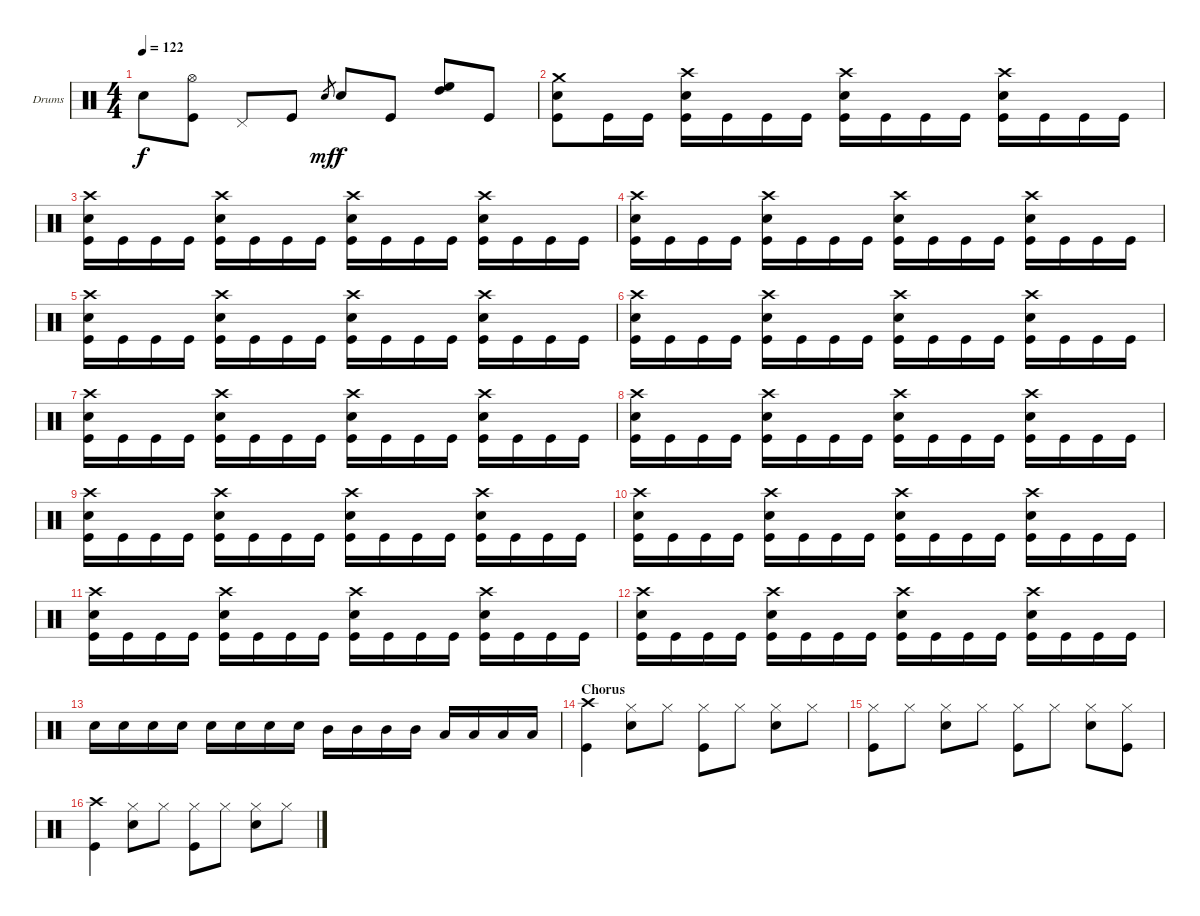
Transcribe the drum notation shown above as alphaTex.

\bracketExtendMode groupsimilarinstruments
\firstSystemTrackNameOrientation horizontal
\otherSystemsTrackNameOrientation horizontal
\track ("Drumkit" "Drums") {instrument percussion}
\staff {score}
\articulation defaults
\ts (4 4)
\tempo 122
\clef neutral
\ks c "Snare (hit) 2".8{dy f}
("Kick (hit)" "Hi-Hat (open)").8 "Pedal Hi-Hat (hit)".8 "Kick (hit)".8 "Snare (hit) 2".8{gr dy mf} "Snare (hit) 2".8{dy f} "Kick (hit)".8 ("High Tom (hit)" "High Floor Tom (hit)").8 "Kick (hit)".8 |
("Kick (hit)" "Snare (hit) 2" "Crash medium (hit)").8 "Kick (hit)".16 "Kick (hit)".16 ("Kick (hit)" "Snare (hit) 2" "Crash high (hit)").16 "Kick (hit)".16 "Kick (hit)".16 "Kick (hit)".16 ("Kick (hit)" "Snare (hit) 2" "Crash high (hit)").16 "Kick (hit)".16 "Kick (hit)".16 "Kick (hit)".16 ("Kick (hit)" "Snare (hit) 2" "Crash high (hit)").16 "Kick (hit)".16 "Kick (hit)".16 "Kick (hit)".16 |
("Kick (hit)" "Snare (hit) 2" "Crash high (hit)").16 "Kick (hit)".16 "Kick (hit)".16 "Kick (hit)".16 ("Kick (hit)" "Snare (hit) 2" "Crash high (hit)").16 "Kick (hit)".16 "Kick (hit)".16 "Kick (hit)".16 ("Kick (hit)" "Snare (hit) 2" "Crash high (hit)").16 "Kick (hit)".16 "Kick (hit)".16 "Kick (hit)".16 ("Kick (hit)" "Snare (hit) 2" "Crash high (hit)").16 "Kick (hit)".16 "Kick (hit)".16 "Kick (hit)".16 |
("Kick (hit)" "Snare (hit) 2" "Crash high (hit)").16 "Kick (hit)".16 "Kick (hit)".16 "Kick (hit)".16 ("Kick (hit)" "Snare (hit) 2" "Crash high (hit)").16 "Kick (hit)".16 "Kick (hit)".16 "Kick (hit)".16 ("Kick (hit)" "Snare (hit) 2" "Crash high (hit)").16 "Kick (hit)".16 "Kick (hit)".16 "Kick (hit)".16 ("Kick (hit)" "Snare (hit) 2" "Crash high (hit)").16 "Kick (hit)".16 "Kick (hit)".16 "Kick (hit)".16 |
("Kick (hit)" "Snare (hit) 2" "Crash high (hit)").16 "Kick (hit)".16 "Kick (hit)".16 "Kick (hit)".16 ("Kick (hit)" "Snare (hit) 2" "Crash high (hit)").16 "Kick (hit)".16 "Kick (hit)".16 "Kick (hit)".16 ("Kick (hit)" "Snare (hit) 2" "Crash high (hit)").16 "Kick (hit)".16 "Kick (hit)".16 "Kick (hit)".16 ("Kick (hit)" "Snare (hit) 2" "Crash high (hit)").16 "Kick (hit)".16 "Kick (hit)".16 "Kick (hit)".16 |
("Kick (hit)" "Snare (hit) 2" "Crash high (hit)").16 "Kick (hit)".16 "Kick (hit)".16 "Kick (hit)".16 ("Kick (hit)" "Snare (hit) 2" "Crash high (hit)").16 "Kick (hit)".16 "Kick (hit)".16 "Kick (hit)".16 ("Kick (hit)" "Snare (hit) 2" "Crash high (hit)").16 "Kick (hit)".16 "Kick (hit)".16 "Kick (hit)".16 ("Kick (hit)" "Snare (hit) 2" "Crash high (hit)").16 "Kick (hit)".16 "Kick (hit)".16 "Kick (hit)".16 |
("Kick (hit)" "Snare (hit) 2" "Crash high (hit)").16 "Kick (hit)".16 "Kick (hit)".16 "Kick (hit)".16 ("Kick (hit)" "Snare (hit) 2" "Crash high (hit)").16 "Kick (hit)".16 "Kick (hit)".16 "Kick (hit)".16 ("Kick (hit)" "Snare (hit) 2" "Crash high (hit)").16 "Kick (hit)".16 "Kick (hit)".16 "Kick (hit)".16 ("Kick (hit)" "Snare (hit) 2" "Crash high (hit)").16 "Kick (hit)".16 "Kick (hit)".16 "Kick (hit)".16 |
("Kick (hit)" "Snare (hit) 2" "Crash high (hit)").16 "Kick (hit)".16 "Kick (hit)".16 "Kick (hit)".16 ("Kick (hit)" "Snare (hit) 2" "Crash high (hit)").16 "Kick (hit)".16 "Kick (hit)".16 "Kick (hit)".16 ("Kick (hit)" "Snare (hit) 2" "Crash high (hit)").16 "Kick (hit)".16 "Kick (hit)".16 "Kick (hit)".16 ("Kick (hit)" "Snare (hit) 2" "Crash high (hit)").16 "Kick (hit)".16 "Kick (hit)".16 "Kick (hit)".16 |
("Kick (hit)" "Snare (hit) 2" "Crash high (hit)").16 "Kick (hit)".16 "Kick (hit)".16 "Kick (hit)".16 ("Kick (hit)" "Snare (hit) 2" "Crash high (hit)").16 "Kick (hit)".16 "Kick (hit)".16 "Kick (hit)".16 ("Kick (hit)" "Snare (hit) 2" "Crash high (hit)").16 "Kick (hit)".16 "Kick (hit)".16 "Kick (hit)".16 ("Kick (hit)" "Snare (hit) 2" "Crash high (hit)").16 "Kick (hit)".16 "Kick (hit)".16 "Kick (hit)".16 |
("Kick (hit)" "Snare (hit) 2" "Crash high (hit)").16 "Kick (hit)".16 "Kick (hit)".16 "Kick (hit)".16 ("Kick (hit)" "Snare (hit) 2" "Crash high (hit)").16 "Kick (hit)".16 "Kick (hit)".16 "Kick (hit)".16 ("Kick (hit)" "Snare (hit) 2" "Crash high (hit)").16 "Kick (hit)".16 "Kick (hit)".16 "Kick (hit)".16 ("Kick (hit)" "Snare (hit) 2" "Crash high (hit)").16 "Kick (hit)".16 "Kick (hit)".16 "Kick (hit)".16 |
("Kick (hit)" "Snare (hit) 2" "Crash high (hit)").16 "Kick (hit)".16 "Kick (hit)".16 "Kick (hit)".16 ("Kick (hit)" "Snare (hit) 2" "Crash high (hit)").16 "Kick (hit)".16 "Kick (hit)".16 "Kick (hit)".16 ("Kick (hit)" "Snare (hit) 2" "Crash high (hit)").16 "Kick (hit)".16 "Kick (hit)".16 "Kick (hit)".16 ("Kick (hit)" "Snare (hit) 2" "Crash high (hit)").16 "Kick (hit)".16 "Kick (hit)".16 "Kick (hit)".16 |
("Kick (hit)" "Snare (hit) 2" "Crash high (hit)").16 "Kick (hit)".16 "Kick (hit)".16 "Kick (hit)".16 ("Kick (hit)" "Snare (hit) 2" "Crash high (hit)").16 "Kick (hit)".16 "Kick (hit)".16 "Kick (hit)".16 ("Kick (hit)" "Snare (hit) 2" "Crash high (hit)").16 "Kick (hit)".16 "Kick (hit)".16 "Kick (hit)".16 ("Kick (hit)" "Snare (hit) 2" "Crash high (hit)").16 "Kick (hit)".16 "Kick (hit)".16 "Kick (hit)".16 |
"Snare (hit) 2".16 "Snare (hit) 2".16 "Snare (hit) 2".16 "Snare (hit) 2".16 "Snare (hit) 2".16 "Snare (hit) 2".16 "Snare (hit) 2".16 "Snare (hit) 2".16 "Mid Tom (hit)".16 "Mid Tom (hit)".16 "Mid Tom (hit)".16 "Mid Tom (hit)".16 "Low Tom (hit)".16 "Low Tom (hit)".16 "Low Tom (hit)".16 "Low Tom (hit)".16 |
\section ("" "Chorus")
("Kick (hit)" "Crash high (hit)").4 ("Snare (hit) 2" "Hi-Hat (closed)").8 "Hi-Hat (closed)".8 ("Kick (hit)" "Hi-Hat (closed)").8 "Hi-Hat (closed)".8 ("Snare (hit) 2" "Hi-Hat (closed)").8 "Hi-Hat (closed)".8 |
("Kick (hit)" "Hi-Hat (closed)").8 "Hi-Hat (closed)".8 ("Snare (hit) 2" "Hi-Hat (closed)").8 "Hi-Hat (closed)".8 ("Kick (hit)" "Hi-Hat (closed)").8 "Hi-Hat (closed)".8 ("Snare (hit) 2" "Hi-Hat (closed)").8 ("Kick (hit)" "Hi-Hat (closed)").8 |
("Kick (hit)" "Crash high (hit)").4 ("Snare (hit) 2" "Hi-Hat (closed)").8 "Hi-Hat (closed)".8 ("Kick (hit)" "Hi-Hat (closed)").8 "Hi-Hat (closed)".8 ("Snare (hit) 2" "Hi-Hat (closed)").8 "Hi-Hat (closed)".8
